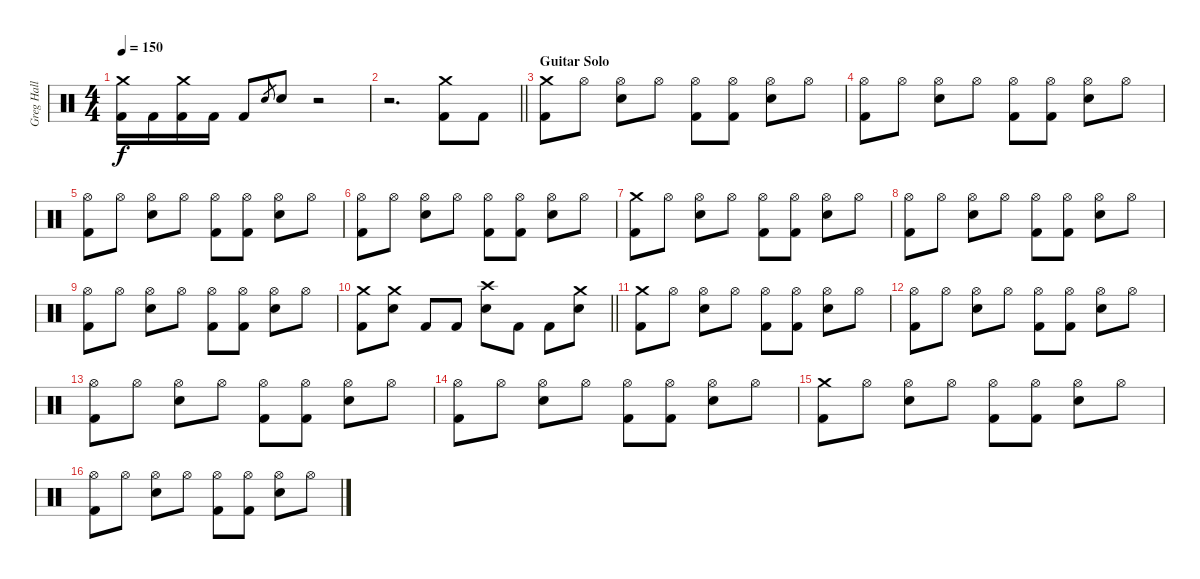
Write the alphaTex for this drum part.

\track ("Greg Hall" "Greg Hall") {instrument percussion}
\staff {score}
\articulation defaults
\ts (4 4)
\tempo 150
\clef neutral
\ks c
("Crash medium (hit)" "Kick (hit) 2").16{dy f} "Kick (hit) 2".16 ("Crash medium (hit)" "Kick (hit) 2").16 "Kick (hit) 2".16 "Kick (hit) 2".8 "Electric Snare (hit)".8{gr} "Electric Snare (hit)".8 r.2 |
\barLineRight lightlight
r.2{d} ("Crash medium (hit)" "Kick (hit) 2").8 "Kick (hit) 2".8 |
\section ("" "Guitar Solo")
("Crash medium (hit)" "Kick (hit) 2").8 "Hi-Hat (open)".8 ("Hi-Hat (open)" "Electric Snare (hit)").8 "Hi-Hat (open)".8 ("Hi-Hat (open)" "Kick (hit) 2").8 ("Hi-Hat (open)" "Kick (hit) 2").8 ("Hi-Hat (open)" "Electric Snare (hit)").8 "Hi-Hat (open)".8 |
("Hi-Hat (open)" "Kick (hit) 2").8 "Hi-Hat (open)".8 ("Hi-Hat (open)" "Electric Snare (hit)").8 "Hi-Hat (open)".8 ("Hi-Hat (open)" "Kick (hit) 2").8 ("Hi-Hat (open)" "Kick (hit) 2").8 ("Hi-Hat (open)" "Electric Snare (hit)").8 "Hi-Hat (open)".8 |
("Hi-Hat (open)" "Kick (hit) 2").8 "Hi-Hat (open)".8 ("Hi-Hat (open)" "Electric Snare (hit)").8 "Hi-Hat (open)".8 ("Hi-Hat (open)" "Kick (hit) 2").8 ("Hi-Hat (open)" "Kick (hit) 2").8 ("Hi-Hat (open)" "Electric Snare (hit)").8 "Hi-Hat (open)".8 |
("Hi-Hat (open)" "Kick (hit) 2").8 "Hi-Hat (open)".8 ("Hi-Hat (open)" "Electric Snare (hit)").8 "Hi-Hat (open)".8 ("Hi-Hat (open)" "Kick (hit) 2").8 ("Hi-Hat (open)" "Kick (hit) 2").8 ("Hi-Hat (open)" "Electric Snare (hit)").8 "Hi-Hat (open)".8 |
("Crash medium (hit)" "Kick (hit) 2").8 "Hi-Hat (open)".8 ("Hi-Hat (open)" "Electric Snare (hit)").8 "Hi-Hat (open)".8 ("Hi-Hat (open)" "Kick (hit) 2").8 ("Hi-Hat (open)" "Kick (hit) 2").8 ("Hi-Hat (open)" "Electric Snare (hit)").8 "Hi-Hat (open)".8 |
("Hi-Hat (open)" "Kick (hit) 2").8 "Hi-Hat (open)".8 ("Hi-Hat (open)" "Electric Snare (hit)").8 "Hi-Hat (open)".8 ("Hi-Hat (open)" "Kick (hit) 2").8 ("Hi-Hat (open)" "Kick (hit) 2").8 ("Hi-Hat (open)" "Electric Snare (hit)").8 "Hi-Hat (open)".8 |
("Hi-Hat (open)" "Kick (hit) 2").8 "Hi-Hat (open)".8 ("Hi-Hat (open)" "Electric Snare (hit)").8 "Hi-Hat (open)".8 ("Hi-Hat (open)" "Kick (hit) 2").8 ("Hi-Hat (open)" "Kick (hit) 2").8 ("Hi-Hat (open)" "Electric Snare (hit)").8 "Hi-Hat (open)".8 |
\barLineRight lightlight
("Crash medium (hit)" "Kick (hit) 2").8 ("Crash medium (hit)" "Electric Snare (hit)").8 "Kick (hit) 2".8 "Kick (hit) 2".8 ("Crash high (hit)" "Electric Snare (hit)").8 "Kick (hit) 2".8 "Kick (hit) 2".8 ("Crash medium (hit)" "Electric Snare (hit)").8 |
("Crash medium (hit)" "Kick (hit) 2").8 "Hi-Hat (open)".8 ("Hi-Hat (open)" "Electric Snare (hit)").8 "Hi-Hat (open)".8 ("Hi-Hat (open)" "Kick (hit) 2").8 ("Hi-Hat (open)" "Kick (hit) 2").8 ("Hi-Hat (open)" "Electric Snare (hit)").8 "Hi-Hat (open)".8 |
("Hi-Hat (open)" "Kick (hit) 2").8 "Hi-Hat (open)".8 ("Hi-Hat (open)" "Electric Snare (hit)").8 "Hi-Hat (open)".8 ("Hi-Hat (open)" "Kick (hit) 2").8 ("Hi-Hat (open)" "Kick (hit) 2").8 ("Hi-Hat (open)" "Electric Snare (hit)").8 "Hi-Hat (open)".8 |
("Hi-Hat (open)" "Kick (hit) 2").8 "Hi-Hat (open)".8 ("Hi-Hat (open)" "Electric Snare (hit)").8 "Hi-Hat (open)".8 ("Hi-Hat (open)" "Kick (hit) 2").8 ("Hi-Hat (open)" "Kick (hit) 2").8 ("Hi-Hat (open)" "Electric Snare (hit)").8 "Hi-Hat (open)".8 |
("Hi-Hat (open)" "Kick (hit) 2").8 "Hi-Hat (open)".8 ("Hi-Hat (open)" "Electric Snare (hit)").8 "Hi-Hat (open)".8 ("Hi-Hat (open)" "Kick (hit) 2").8 ("Hi-Hat (open)" "Kick (hit) 2").8 ("Hi-Hat (open)" "Electric Snare (hit)").8 "Hi-Hat (open)".8 |
("Crash medium (hit)" "Kick (hit) 2").8 "Hi-Hat (open)".8 ("Hi-Hat (open)" "Electric Snare (hit)").8 "Hi-Hat (open)".8 ("Hi-Hat (open)" "Kick (hit) 2").8 ("Hi-Hat (open)" "Kick (hit) 2").8 ("Hi-Hat (open)" "Electric Snare (hit)").8 "Hi-Hat (open)".8 |
("Hi-Hat (open)" "Kick (hit) 2").8 "Hi-Hat (open)".8 ("Hi-Hat (open)" "Electric Snare (hit)").8 "Hi-Hat (open)".8 ("Hi-Hat (open)" "Kick (hit) 2").8 ("Hi-Hat (open)" "Kick (hit) 2").8 ("Hi-Hat (open)" "Electric Snare (hit)").8 "Hi-Hat (open)".8
